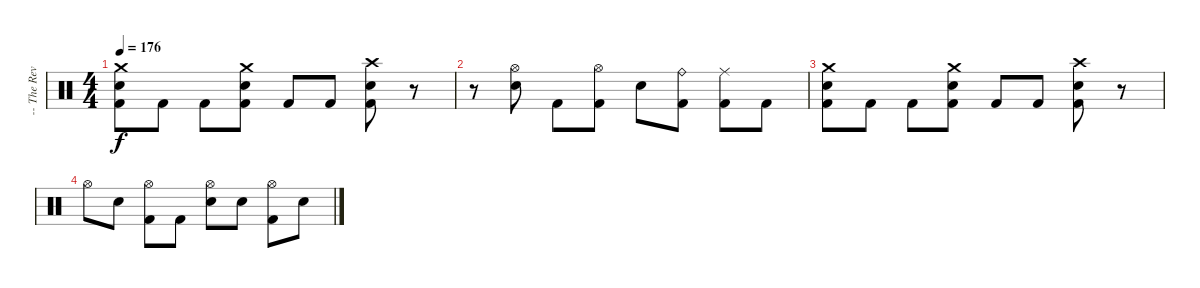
\track ("-- The Reverend - Drums" "-- The Rev") {instrument percussion}
\staff {score}
\articulation defaults
\ts (4 4)
\tempo 176
\clef neutral
\ks c
("Crash medium (hit)" "Electric Snare (hit)" "Kick (hit) 2").8{dy f} "Kick (hit) 2".8 "Kick (hit) 2".8 ("Crash medium (hit)" "Electric Snare (hit)" "Kick (hit) 2").8 "Kick (hit) 2".8 "Kick (hit) 2".8 ("Crash high (hit)" "Electric Snare (hit)" "Kick (hit) 2").8 r.8 |
r.8 ("Hi-Hat (open)" "Electric Snare (hit)").8 "Kick (hit) 2".8 ("Hi-Hat (open)" "Kick (hit) 2").8 "Electric Snare (hit)".8 ("Ride (bell)" "Kick (hit) 2").8 ("Ride (middle)" "Kick (hit) 2").8 "Kick (hit) 2".8 |
("Crash medium (hit)" "Electric Snare (hit)" "Kick (hit) 2").8 "Kick (hit) 2".8 "Kick (hit) 2".8 ("Crash medium (hit)" "Electric Snare (hit)" "Kick (hit) 2").8 "Kick (hit) 2".8 "Kick (hit) 2".8 ("Crash high (hit)" "Electric Snare (hit)" "Kick (hit) 2").8 r.8 |
"Hi-Hat (open)".8 "Electric Snare (hit)".8 ("Hi-Hat (open)" "Kick (hit) 2").8 "Kick (hit) 2".8 ("Hi-Hat (open)" "Electric Snare (hit)").8 "Electric Snare (hit)".8 ("Hi-Hat (open)" "Kick (hit) 2").8 "Electric Snare (hit)".8
